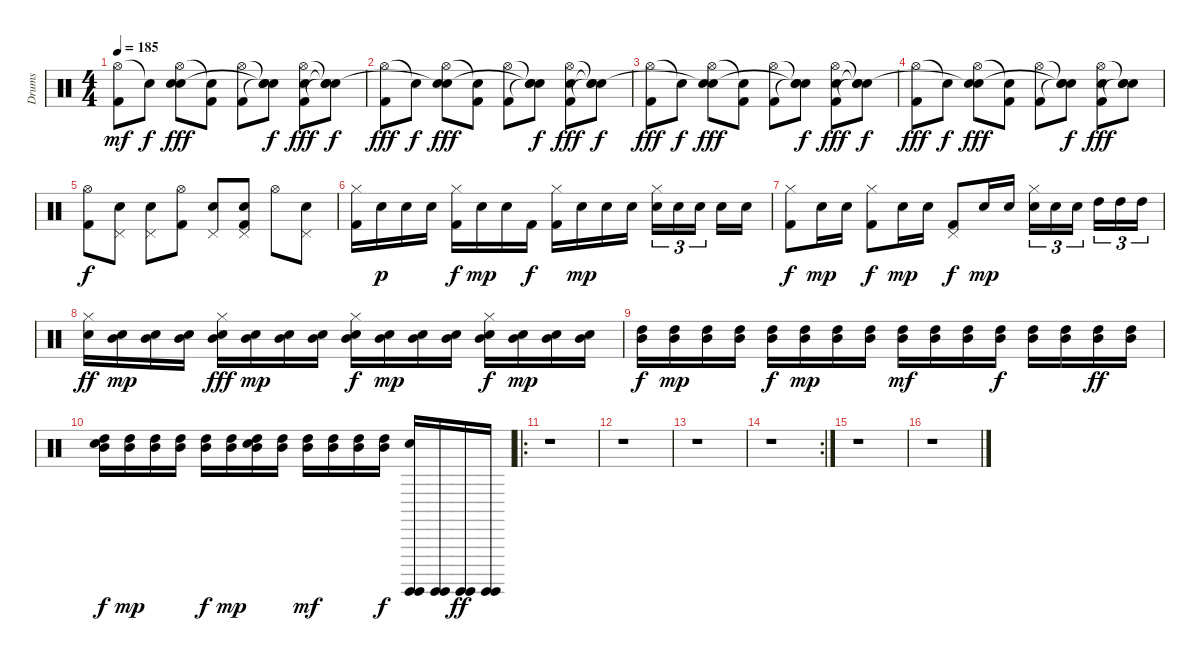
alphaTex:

\track ("Drums" "Drums") {instrument percussion}
\staff {score}
\articulation defaults
\ts (4 4)
\tempo 185
\clef neutral
\ks c
("Hi-Hat (open)" "Kick (hit) 2").8{dy mf} "Snare (hit)"{t}.8{dy f} ("Hi-Hat (open)" "Electric Snare (hit)" "Snare (hit)"{t}).8{dy fff} ("Snare (hit)"{t} "Kick (hit) 2").8 ("Hi-Hat (open)" "Kick (hit) 2").8 ("Snare (hit)"{t} "Snare (hit)"{t} "Snare (hit)"{t}).8{dy f} ("Hi-Hat (open)" "Electric Snare (hit)" "Kick (hit) 2").8{dy fff} ("Snare (hit)"{t} "Snare (hit)"{t} "Snare (hit)"{t}).8{dy f} |
("Hi-Hat (open)" "Kick (hit) 2").8{dy fff} "Snare (hit)"{t}.8{dy f} ("Hi-Hat (open)" "Electric Snare (hit)" "Snare (hit)"{t}).8{dy fff} ("Snare (hit)"{t} "Kick (hit) 2").8 ("Hi-Hat (open)" "Kick (hit) 2").8 ("Snare (hit)"{t} "Snare (hit)"{t} "Snare (hit)"{t}).8{dy f} ("Hi-Hat (open)" "Electric Snare (hit)" "Kick (hit) 2").8{dy fff} ("Snare (hit)"{t} "Snare (hit)"{t} "Snare (hit)"{t}).8{dy f} |
("Hi-Hat (open)" "Kick (hit) 2").8{dy fff} "Snare (hit)"{t}.8{dy f} ("Hi-Hat (open)" "Electric Snare (hit)" "Snare (hit)"{t}).8{dy fff} ("Snare (hit)"{t} "Kick (hit) 2").8 ("Hi-Hat (open)" "Kick (hit) 2").8 ("Snare (hit)"{t} "Snare (hit)"{t} "Snare (hit)"{t}).8{dy f} ("Hi-Hat (open)" "Electric Snare (hit)" "Kick (hit) 2").8{dy fff} ("Snare (hit)"{t} "Snare (hit)"{t} "Snare (hit)"{t}).8{dy f} |
("Hi-Hat (open)" "Kick (hit) 2").8{dy fff} "Snare (hit)"{t}.8{dy f} ("Hi-Hat (open)" "Electric Snare (hit)" "Snare (hit)"{t}).8{dy fff} ("Snare (hit)"{t} "Kick (hit) 2").8 ("Hi-Hat (open)" "Kick (hit) 2").8 ("Snare (hit)"{t} "Snare (hit)"{t} "Snare (hit)"{t}).8{dy f} ("Hi-Hat (open)" "Electric Snare (hit)" "Kick (hit) 2").8{dy fff} ("Snare (hit)"{t} "Electric Snare (hit)" "Snare (hit)"{t}).8 |
("Hi-Hat (open)" "Kick (hit) 2").8{dy f} ("Pedal Hi-Hat (hit)" "Electric Snare (hit)").8 ("Pedal Hi-Hat (hit)" "Electric Snare (hit)").8 ("Hi-Hat (open)" "Kick (hit) 2").8 ("Pedal Hi-Hat (hit)" "Electric Snare (hit)").8 ("Pedal Hi-Hat (hit)" "Electric Snare (hit)" "Kick (hit) 2").8 "Hi-Hat (open)".8 ("Pedal Hi-Hat (hit)" "Electric Snare (hit)").8 |
("Hi-Hat (closed)" "Kick (hit) 2").16 "Electric Snare (hit)".16{dy p} "Electric Snare (hit)".16 "Electric Snare (hit)".16 ("Hi-Hat (closed)" "Kick (hit) 2").16{dy f} "Electric Snare (hit)".16{dy mp} "Electric Snare (hit)".16 "Kick (hit) 2".16{dy f} ("Hi-Hat (closed)" "Kick (hit) 2").16 "Electric Snare (hit)".16{dy mp} "Electric Snare (hit)".16 "Electric Snare (hit)".16 ("Hi-Hat (closed)" "Electric Snare (hit)").16{tu (3 2)} "Electric Snare (hit)".16{tu (3 2)} "Electric Snare (hit)".16{tu (3 2)} "Electric Snare (hit)".16 "Electric Snare (hit)".16 |
("Hi-Hat (closed)" "Kick (hit) 2").8{dy f} "Electric Snare (hit)".16{dy mp} "Electric Snare (hit)".16 ("Hi-Hat (closed)" "Kick (hit) 2").8{dy f} "Electric Snare (hit)".16{dy mp} "Electric Snare (hit)".16 ("Pedal Hi-Hat (hit)" "Kick (hit) 2").8{dy f} "Electric Snare (hit)".16{dy mp} "Electric Snare (hit)".16 ("Hi-Hat (closed)" "Electric Snare (hit)").16{tu (3 2)} "Electric Snare (hit)".16{tu (3 2)} "Electric Snare (hit)".16{tu (3 2)} "High Tom (hit)".16{tu (3 2)} "High Tom (hit)".16{tu (3 2)} "High Tom (hit)".16{tu (3 2)} |
("Hi-Hat (closed)" "Electric Snare (hit)").16{dy ff} ("Electric Snare (hit)" "Mid Tom (hit)").16{dy mp} ("Electric Snare (hit)" "Mid Tom (hit)").16 ("Electric Snare (hit)" "Mid Tom (hit)").16 ("Hi-Hat (closed)" "Electric Snare (hit)" "Mid Tom (hit)").16{dy fff} ("Electric Snare (hit)" "Mid Tom (hit)").16{dy mp} ("Electric Snare (hit)" "Mid Tom (hit)").16 ("Electric Snare (hit)" "Mid Tom (hit)").16 ("Hi-Hat (closed)" "Electric Snare (hit)" "Mid Tom (hit)").16{dy f} ("Electric Snare (hit)" "Mid Tom (hit)").16{dy mp} ("Electric Snare (hit)" "Mid Tom (hit)").16 ("Electric Snare (hit)" "Mid Tom (hit)").16 ("Hi-Hat (closed)" "Electric Snare (hit)" "Mid Tom (hit)").16{dy f} ("Electric Snare (hit)" "Mid Tom (hit)").16{dy mp} ("Electric Snare (hit)" "Mid Tom (hit)").16 ("Electric Snare (hit)" "Mid Tom (hit)").16 |
("Mid Tom (hit)" "High Tom (hit)").16{dy f} ("Mid Tom (hit)" "High Tom (hit)").16{dy mp} ("Mid Tom (hit)" "High Tom (hit)").16 ("Mid Tom (hit)" "High Tom (hit)").16 ("Mid Tom (hit)" "High Tom (hit)").16{dy f} ("Mid Tom (hit)" "High Tom (hit)").16{dy mp} ("Mid Tom (hit)" "High Tom (hit)").16 ("Mid Tom (hit)" "High Tom (hit)").16 ("Mid Tom (hit)" "High Tom (hit)").16{dy mf} ("Mid Tom (hit)" "High Tom (hit)").16 ("Mid Tom (hit)" "High Tom (hit)").16 ("Mid Tom (hit)" "High Tom (hit)").16{dy f} ("Mid Tom (hit)" "High Tom (hit)").16 ("Mid Tom (hit)" "High Tom (hit)").16 ("Mid Tom (hit)" "High Tom (hit)").16{dy ff} ("Mid Tom (hit)" "High Tom (hit)").16 |
("Electric Snare (hit)" "Mid Tom (hit)" "High Tom (hit)").16{dy f} ("Mid Tom (hit)" "High Tom (hit)").16{dy mp} ("Mid Tom (hit)" "High Tom (hit)").16 ("Mid Tom (hit)" "High Tom (hit)").16 ("Mid Tom (hit)" "High Tom (hit)").16{dy f} ("Mid Tom (hit)" "High Tom (hit)").16{dy mp} ("Electric Snare (hit)" "Mid Tom (hit)" "High Tom (hit)").16 ("Mid Tom (hit)" "High Tom (hit)").16 ("Mid Tom (hit)" "High Tom (hit)").16{dy mf} ("Mid Tom (hit)" "High Tom (hit)").16 ("Mid Tom (hit)" "High Tom (hit)").16 ("Mid Tom (hit)" "High Tom (hit)").16{dy f} ("Electric Snare (hit)" "Surdo (hit)" "Surdo (hit)").16 ("Surdo (hit)" "Surdo (hit)").16 ("Surdo (hit)" "Surdo (hit)").16{dy ff} ("Surdo (hit)" "Surdo (hit)").16 |
\ro
r.1 |
r.1 |
r.1 |
\rc 2
r.1 |
r.1 |
r.1
